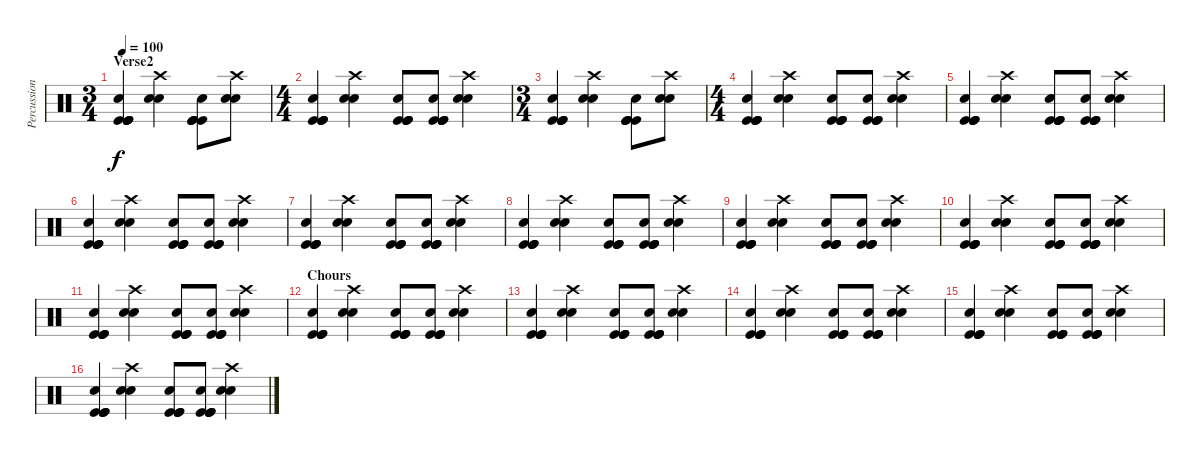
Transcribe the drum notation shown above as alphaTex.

\track ("Percussion" "Percussion") {instrument percussion}
\staff {score}
\articulation defaults
\ts (3 4)
\section ("" "Verse2")
\tempo 100
\clef neutral
\ks c
("Electric Snare (hit)" "Kick (hit)" "Kick (hit)" "Kick (hit)" "Kick (hit)").4{dy f} ("Electric Snare (hit)" "Electric Snare (hit)" "Crash high (hit)").4 ("Electric Snare (hit)" "Kick (hit)" "Kick (hit)" "Kick (hit)" "Kick (hit)").8 ("Electric Snare (hit)" "Electric Snare (hit)" "Crash high (hit)").8 |
\ts (4 4)
("Electric Snare (hit)" "Kick (hit)" "Kick (hit)" "Kick (hit)" "Kick (hit)").4 ("Electric Snare (hit)" "Electric Snare (hit)" "Crash high (hit)").4 ("Electric Snare (hit)" "Kick (hit)" "Kick (hit)" "Kick (hit)" "Kick (hit)").8 ("Electric Snare (hit)" "Kick (hit)" "Kick (hit)" "Kick (hit)" "Kick (hit)").8 ("Electric Snare (hit)" "Electric Snare (hit)" "Crash high (hit)").4 |
\ts (3 4)
("Electric Snare (hit)" "Kick (hit)" "Kick (hit)" "Kick (hit)" "Kick (hit)").4 ("Electric Snare (hit)" "Electric Snare (hit)" "Crash high (hit)").4 ("Electric Snare (hit)" "Kick (hit)" "Kick (hit)" "Kick (hit)" "Kick (hit)").8 ("Electric Snare (hit)" "Electric Snare (hit)" "Crash high (hit)").8 |
\ts (4 4)
("Electric Snare (hit)" "Kick (hit)" "Kick (hit)" "Kick (hit)" "Kick (hit)").4 ("Electric Snare (hit)" "Electric Snare (hit)" "Crash high (hit)").4 ("Electric Snare (hit)" "Kick (hit)" "Kick (hit)" "Kick (hit)" "Kick (hit)").8 ("Electric Snare (hit)" "Kick (hit)" "Kick (hit)" "Kick (hit)" "Kick (hit)").8 ("Electric Snare (hit)" "Electric Snare (hit)" "Crash high (hit)").4 |
("Electric Snare (hit)" "Kick (hit)" "Kick (hit)" "Kick (hit)" "Kick (hit)").4 ("Electric Snare (hit)" "Electric Snare (hit)" "Crash high (hit)").4 ("Electric Snare (hit)" "Kick (hit)" "Kick (hit)" "Kick (hit)" "Kick (hit)").8 ("Electric Snare (hit)" "Kick (hit)" "Kick (hit)" "Kick (hit)" "Kick (hit)").8 ("Electric Snare (hit)" "Electric Snare (hit)" "Crash high (hit)").4 |
("Electric Snare (hit)" "Kick (hit)" "Kick (hit)" "Kick (hit)" "Kick (hit)").4 ("Electric Snare (hit)" "Electric Snare (hit)" "Crash high (hit)").4 ("Electric Snare (hit)" "Kick (hit)" "Kick (hit)" "Kick (hit)" "Kick (hit)").8 ("Electric Snare (hit)" "Kick (hit)" "Kick (hit)" "Kick (hit)" "Kick (hit)").8 ("Electric Snare (hit)" "Electric Snare (hit)" "Crash high (hit)").4 |
("Electric Snare (hit)" "Kick (hit)" "Kick (hit)" "Kick (hit)" "Kick (hit)").4 ("Electric Snare (hit)" "Electric Snare (hit)" "Crash high (hit)").4 ("Electric Snare (hit)" "Kick (hit)" "Kick (hit)" "Kick (hit)" "Kick (hit)").8 ("Electric Snare (hit)" "Kick (hit)" "Kick (hit)" "Kick (hit)" "Kick (hit)").8 ("Electric Snare (hit)" "Electric Snare (hit)" "Crash high (hit)").4 |
("Electric Snare (hit)" "Kick (hit)" "Kick (hit)" "Kick (hit)" "Kick (hit)").4 ("Electric Snare (hit)" "Electric Snare (hit)" "Crash high (hit)").4 ("Electric Snare (hit)" "Kick (hit)" "Kick (hit)" "Kick (hit)" "Kick (hit)").8 ("Electric Snare (hit)" "Kick (hit)" "Kick (hit)" "Kick (hit)" "Kick (hit)").8 ("Electric Snare (hit)" "Electric Snare (hit)" "Crash high (hit)").4 |
("Electric Snare (hit)" "Kick (hit)" "Kick (hit)" "Kick (hit)" "Kick (hit)").4 ("Electric Snare (hit)" "Electric Snare (hit)" "Crash high (hit)").4 ("Electric Snare (hit)" "Kick (hit)" "Kick (hit)" "Kick (hit)" "Kick (hit)").8 ("Electric Snare (hit)" "Kick (hit)" "Kick (hit)" "Kick (hit)" "Kick (hit)").8 ("Electric Snare (hit)" "Electric Snare (hit)" "Crash high (hit)").4 |
("Electric Snare (hit)" "Kick (hit)" "Kick (hit)" "Kick (hit)" "Kick (hit)").4 ("Electric Snare (hit)" "Electric Snare (hit)" "Crash high (hit)").4 ("Electric Snare (hit)" "Kick (hit)" "Kick (hit)" "Kick (hit)" "Kick (hit)").8 ("Electric Snare (hit)" "Kick (hit)" "Kick (hit)" "Kick (hit)" "Kick (hit)").8 ("Electric Snare (hit)" "Electric Snare (hit)" "Crash high (hit)").4 |
("Electric Snare (hit)" "Kick (hit)" "Kick (hit)" "Kick (hit)" "Kick (hit)").4 ("Electric Snare (hit)" "Electric Snare (hit)" "Crash high (hit)").4 ("Electric Snare (hit)" "Kick (hit)" "Kick (hit)" "Kick (hit)" "Kick (hit)").8 ("Electric Snare (hit)" "Kick (hit)" "Kick (hit)" "Kick (hit)" "Kick (hit)").8 ("Electric Snare (hit)" "Electric Snare (hit)" "Crash high (hit)").4 |
\section ("" "Chours")
("Electric Snare (hit)" "Kick (hit)" "Kick (hit)" "Kick (hit)" "Kick (hit)").4 ("Electric Snare (hit)" "Electric Snare (hit)" "Crash high (hit)").4 ("Electric Snare (hit)" "Kick (hit)" "Kick (hit)" "Kick (hit)" "Kick (hit)").8 ("Electric Snare (hit)" "Kick (hit)" "Kick (hit)" "Kick (hit)" "Kick (hit)").8 ("Electric Snare (hit)" "Electric Snare (hit)" "Crash high (hit)").4 |
("Electric Snare (hit)" "Kick (hit)" "Kick (hit)" "Kick (hit)" "Kick (hit)").4 ("Electric Snare (hit)" "Electric Snare (hit)" "Crash high (hit)").4 ("Electric Snare (hit)" "Kick (hit)" "Kick (hit)" "Kick (hit)" "Kick (hit)").8 ("Electric Snare (hit)" "Kick (hit)" "Kick (hit)" "Kick (hit)" "Kick (hit)").8 ("Electric Snare (hit)" "Electric Snare (hit)" "Crash high (hit)").4 |
("Electric Snare (hit)" "Kick (hit)" "Kick (hit)" "Kick (hit)" "Kick (hit)").4 ("Electric Snare (hit)" "Electric Snare (hit)" "Crash high (hit)").4 ("Electric Snare (hit)" "Kick (hit)" "Kick (hit)" "Kick (hit)" "Kick (hit)").8 ("Electric Snare (hit)" "Kick (hit)" "Kick (hit)" "Kick (hit)" "Kick (hit)").8 ("Electric Snare (hit)" "Electric Snare (hit)" "Crash high (hit)").4 |
("Electric Snare (hit)" "Kick (hit)" "Kick (hit)" "Kick (hit)" "Kick (hit)").4 ("Electric Snare (hit)" "Electric Snare (hit)" "Crash high (hit)").4 ("Electric Snare (hit)" "Kick (hit)" "Kick (hit)" "Kick (hit)" "Kick (hit)").8 ("Electric Snare (hit)" "Kick (hit)" "Kick (hit)" "Kick (hit)" "Kick (hit)").8 ("Electric Snare (hit)" "Electric Snare (hit)" "Crash high (hit)").4 |
("Electric Snare (hit)" "Kick (hit)" "Kick (hit)" "Kick (hit)" "Kick (hit)").4 ("Electric Snare (hit)" "Electric Snare (hit)" "Crash high (hit)").4 ("Electric Snare (hit)" "Kick (hit)" "Kick (hit)" "Kick (hit)" "Kick (hit)").8 ("Electric Snare (hit)" "Kick (hit)" "Kick (hit)" "Kick (hit)" "Kick (hit)").8 ("Electric Snare (hit)" "Electric Snare (hit)" "Crash high (hit)").4
